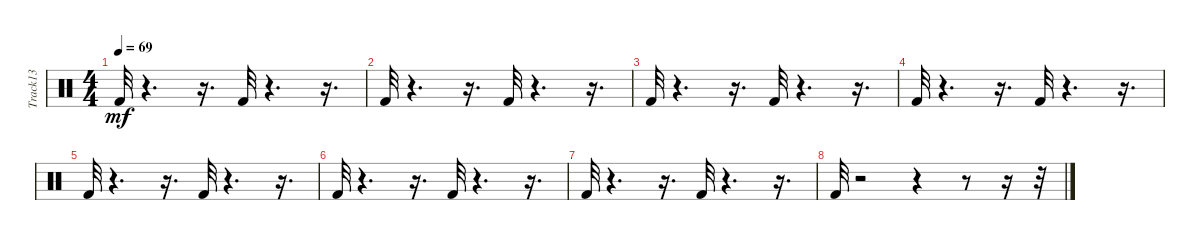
\track ("Track13" "Track13") {instrument percussion}
\staff {score}
\articulation defaults
\ts (4 4)
\tempo 69
\clef neutral
\ks c "Kick (hit) 2".32{dy mf}
r.4{d} r.16{d} "Kick (hit) 2".32 r.4{d} r.16{d} |
"Kick (hit) 2".32 r.4{d} r.16{d} "Kick (hit) 2".32 r.4{d} r.16{d} |
"Kick (hit) 2".32 r.4{d} r.16{d} "Kick (hit) 2".32 r.4{d} r.16{d} |
"Kick (hit) 2".32 r.4{d} r.16{d} "Kick (hit) 2".32 r.4{d} r.16{d} |
"Kick (hit) 2".32 r.4{d} r.16{d} "Kick (hit) 2".32 r.4{d} r.16{d} |
"Kick (hit) 2".32 r.4{d} r.16{d} "Kick (hit) 2".32 r.4{d} r.16{d} |
"Kick (hit) 2".32 r.4{d} r.16{d} "Kick (hit) 2".32 r.4{d} r.16{d} |
"Kick (hit) 2".32 r.2 r.4 r.8 r.16 r.32
